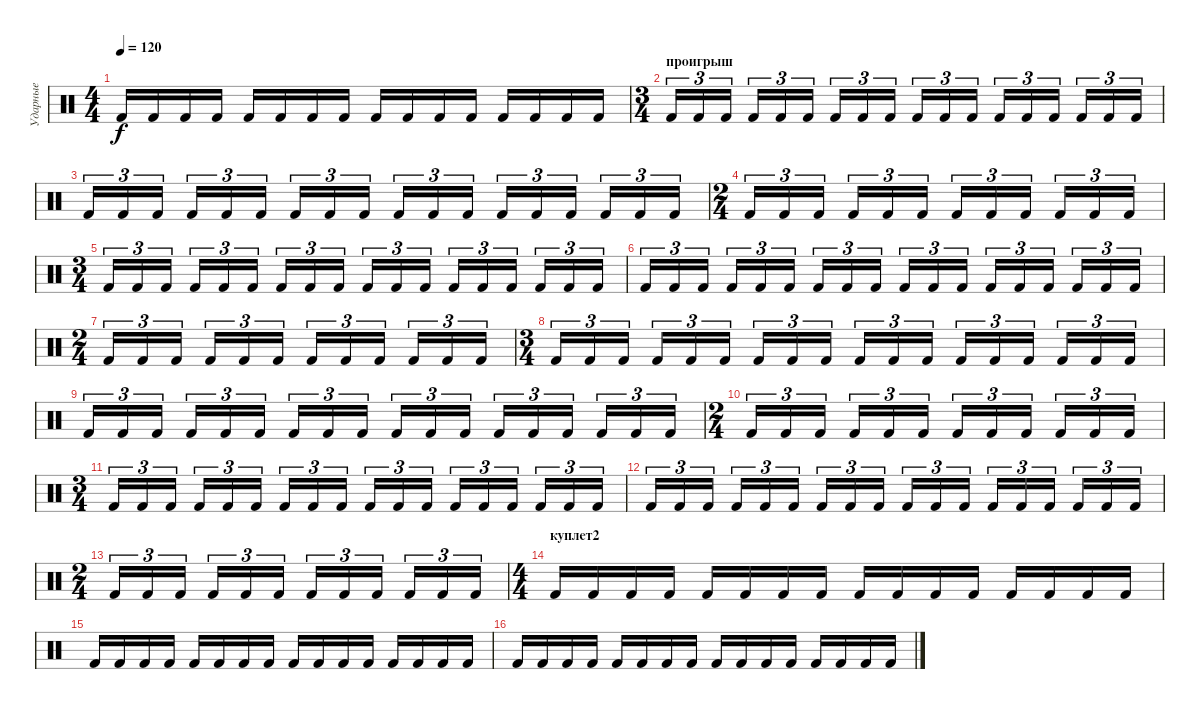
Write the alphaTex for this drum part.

\track ("Ударные" "Ударные") {instrument percussion}
\staff {score}
\articulation defaults
\ts (4 4)
\tempo 120
\clef neutral
\ks c "Kick (hit) 2".16{dy f} "Kick (hit) 2".16 "Kick (hit) 2".16 "Kick (hit) 2".16 "Kick (hit) 2".16 "Kick (hit) 2".16 "Kick (hit) 2".16 "Kick (hit) 2".16 "Kick (hit) 2".16 "Kick (hit) 2".16 "Kick (hit) 2".16 "Kick (hit) 2".16 "Kick (hit) 2".16 "Kick (hit) 2".16 "Kick (hit) 2".16 "Kick (hit) 2".16
|
\ts (3 4)
\section ("" "проигрыш")
"Kick (hit) 2".16{tu (3 2)} "Kick (hit) 2".16{tu (3 2)} "Kick (hit) 2".16{tu (3 2)} "Kick (hit) 2".16{tu (3 2)} "Kick (hit) 2".16{tu (3 2)} "Kick (hit) 2".16{tu (3 2)} "Kick (hit) 2".16{tu (3 2)} "Kick (hit) 2".16{tu (3 2)} "Kick (hit) 2".16{tu (3 2)} "Kick (hit) 2".16{tu (3 2)} "Kick (hit) 2".16{tu (3 2)} "Kick (hit) 2".16{tu (3 2)} "Kick (hit) 2".16{tu (3 2)} "Kick (hit) 2".16{tu (3 2)} "Kick (hit) 2".16{tu (3 2)} "Kick (hit) 2".16{tu (3 2)} "Kick (hit) 2".16{tu (3 2)} "Kick (hit) 2".16{tu (3 2)} |
"Kick (hit) 2".16{tu (3 2)} "Kick (hit) 2".16{tu (3 2)} "Kick (hit) 2".16{tu (3 2)} "Kick (hit) 2".16{tu (3 2)} "Kick (hit) 2".16{tu (3 2)} "Kick (hit) 2".16{tu (3 2)} "Kick (hit) 2".16{tu (3 2)} "Kick (hit) 2".16{tu (3 2)} "Kick (hit) 2".16{tu (3 2)} "Kick (hit) 2".16{tu (3 2)} "Kick (hit) 2".16{tu (3 2)} "Kick (hit) 2".16{tu (3 2)} "Kick (hit) 2".16{tu (3 2)} "Kick (hit) 2".16{tu (3 2)} "Kick (hit) 2".16{tu (3 2)} "Kick (hit) 2".16{tu (3 2)} "Kick (hit) 2".16{tu (3 2)} "Kick (hit) 2".16{tu (3 2)} |
\ts (2 4)
"Kick (hit) 2".16{tu (3 2)} "Kick (hit) 2".16{tu (3 2)} "Kick (hit) 2".16{tu (3 2)} "Kick (hit) 2".16{tu (3 2)} "Kick (hit) 2".16{tu (3 2)} "Kick (hit) 2".16{tu (3 2)} "Kick (hit) 2".16{tu (3 2)} "Kick (hit) 2".16{tu (3 2)} "Kick (hit) 2".16{tu (3 2)} "Kick (hit) 2".16{tu (3 2)} "Kick (hit) 2".16{tu (3 2)} "Kick (hit) 2".16{tu (3 2)} |
\ts (3 4)
"Kick (hit) 2".16{tu (3 2)} "Kick (hit) 2".16{tu (3 2)} "Kick (hit) 2".16{tu (3 2)} "Kick (hit) 2".16{tu (3 2)} "Kick (hit) 2".16{tu (3 2)} "Kick (hit) 2".16{tu (3 2)} "Kick (hit) 2".16{tu (3 2)} "Kick (hit) 2".16{tu (3 2)} "Kick (hit) 2".16{tu (3 2)} "Kick (hit) 2".16{tu (3 2)} "Kick (hit) 2".16{tu (3 2)} "Kick (hit) 2".16{tu (3 2)} "Kick (hit) 2".16{tu (3 2)} "Kick (hit) 2".16{tu (3 2)} "Kick (hit) 2".16{tu (3 2)} "Kick (hit) 2".16{tu (3 2)} "Kick (hit) 2".16{tu (3 2)} "Kick (hit) 2".16{tu (3 2)} |
"Kick (hit) 2".16{tu (3 2)} "Kick (hit) 2".16{tu (3 2)} "Kick (hit) 2".16{tu (3 2)} "Kick (hit) 2".16{tu (3 2)} "Kick (hit) 2".16{tu (3 2)} "Kick (hit) 2".16{tu (3 2)} "Kick (hit) 2".16{tu (3 2)} "Kick (hit) 2".16{tu (3 2)} "Kick (hit) 2".16{tu (3 2)} "Kick (hit) 2".16{tu (3 2)} "Kick (hit) 2".16{tu (3 2)} "Kick (hit) 2".16{tu (3 2)} "Kick (hit) 2".16{tu (3 2)} "Kick (hit) 2".16{tu (3 2)} "Kick (hit) 2".16{tu (3 2)} "Kick (hit) 2".16{tu (3 2)} "Kick (hit) 2".16{tu (3 2)} "Kick (hit) 2".16{tu (3 2)} |
\ts (2 4)
"Kick (hit) 2".16{tu (3 2)} "Kick (hit) 2".16{tu (3 2)} "Kick (hit) 2".16{tu (3 2)} "Kick (hit) 2".16{tu (3 2)} "Kick (hit) 2".16{tu (3 2)} "Kick (hit) 2".16{tu (3 2)} "Kick (hit) 2".16{tu (3 2)} "Kick (hit) 2".16{tu (3 2)} "Kick (hit) 2".16{tu (3 2)} "Kick (hit) 2".16{tu (3 2)} "Kick (hit) 2".16{tu (3 2)} "Kick (hit) 2".16{tu (3 2)} |
\ts (3 4)
"Kick (hit) 2".16{tu (3 2)} "Kick (hit) 2".16{tu (3 2)} "Kick (hit) 2".16{tu (3 2)} "Kick (hit) 2".16{tu (3 2)} "Kick (hit) 2".16{tu (3 2)} "Kick (hit) 2".16{tu (3 2)} "Kick (hit) 2".16{tu (3 2)} "Kick (hit) 2".16{tu (3 2)} "Kick (hit) 2".16{tu (3 2)} "Kick (hit) 2".16{tu (3 2)} "Kick (hit) 2".16{tu (3 2)} "Kick (hit) 2".16{tu (3 2)} "Kick (hit) 2".16{tu (3 2)} "Kick (hit) 2".16{tu (3 2)} "Kick (hit) 2".16{tu (3 2)} "Kick (hit) 2".16{tu (3 2)} "Kick (hit) 2".16{tu (3 2)} "Kick (hit) 2".16{tu (3 2)} |
"Kick (hit) 2".16{tu (3 2)} "Kick (hit) 2".16{tu (3 2)} "Kick (hit) 2".16{tu (3 2)} "Kick (hit) 2".16{tu (3 2)} "Kick (hit) 2".16{tu (3 2)} "Kick (hit) 2".16{tu (3 2)} "Kick (hit) 2".16{tu (3 2)} "Kick (hit) 2".16{tu (3 2)} "Kick (hit) 2".16{tu (3 2)} "Kick (hit) 2".16{tu (3 2)} "Kick (hit) 2".16{tu (3 2)} "Kick (hit) 2".16{tu (3 2)} "Kick (hit) 2".16{tu (3 2)} "Kick (hit) 2".16{tu (3 2)} "Kick (hit) 2".16{tu (3 2)} "Kick (hit) 2".16{tu (3 2)} "Kick (hit) 2".16{tu (3 2)} "Kick (hit) 2".16{tu (3 2)} |
\ts (2 4)
"Kick (hit) 2".16{tu (3 2)} "Kick (hit) 2".16{tu (3 2)} "Kick (hit) 2".16{tu (3 2)} "Kick (hit) 2".16{tu (3 2)} "Kick (hit) 2".16{tu (3 2)} "Kick (hit) 2".16{tu (3 2)} "Kick (hit) 2".16{tu (3 2)} "Kick (hit) 2".16{tu (3 2)} "Kick (hit) 2".16{tu (3 2)} "Kick (hit) 2".16{tu (3 2)} "Kick (hit) 2".16{tu (3 2)} "Kick (hit) 2".16{tu (3 2)} |
\ts (3 4)
"Kick (hit) 2".16{tu (3 2)} "Kick (hit) 2".16{tu (3 2)} "Kick (hit) 2".16{tu (3 2)} "Kick (hit) 2".16{tu (3 2)} "Kick (hit) 2".16{tu (3 2)} "Kick (hit) 2".16{tu (3 2)} "Kick (hit) 2".16{tu (3 2)} "Kick (hit) 2".16{tu (3 2)} "Kick (hit) 2".16{tu (3 2)} "Kick (hit) 2".16{tu (3 2)} "Kick (hit) 2".16{tu (3 2)} "Kick (hit) 2".16{tu (3 2)} "Kick (hit) 2".16{tu (3 2)} "Kick (hit) 2".16{tu (3 2)} "Kick (hit) 2".16{tu (3 2)} "Kick (hit) 2".16{tu (3 2)} "Kick (hit) 2".16{tu (3 2)} "Kick (hit) 2".16{tu (3 2)} |
"Kick (hit) 2".16{tu (3 2)} "Kick (hit) 2".16{tu (3 2)} "Kick (hit) 2".16{tu (3 2)} "Kick (hit) 2".16{tu (3 2)} "Kick (hit) 2".16{tu (3 2)} "Kick (hit) 2".16{tu (3 2)} "Kick (hit) 2".16{tu (3 2)} "Kick (hit) 2".16{tu (3 2)} "Kick (hit) 2".16{tu (3 2)} "Kick (hit) 2".16{tu (3 2)} "Kick (hit) 2".16{tu (3 2)} "Kick (hit) 2".16{tu (3 2)} "Kick (hit) 2".16{tu (3 2)} "Kick (hit) 2".16{tu (3 2)} "Kick (hit) 2".16{tu (3 2)} "Kick (hit) 2".16{tu (3 2)} "Kick (hit) 2".16{tu (3 2)} "Kick (hit) 2".16{tu (3 2)} |
\ts (2 4)
"Kick (hit) 2".16{tu (3 2)} "Kick (hit) 2".16{tu (3 2)} "Kick (hit) 2".16{tu (3 2)} "Kick (hit) 2".16{tu (3 2)} "Kick (hit) 2".16{tu (3 2)} "Kick (hit) 2".16{tu (3 2)} "Kick (hit) 2".16{tu (3 2)} "Kick (hit) 2".16{tu (3 2)} "Kick (hit) 2".16{tu (3 2)} "Kick (hit) 2".16{tu (3 2)} "Kick (hit) 2".16{tu (3 2)} "Kick (hit) 2".16{tu (3 2)} |
\ts (4 4)
\section ("" "куплет2")
"Kick (hit) 2".16 "Kick (hit) 2".16 "Kick (hit) 2".16 "Kick (hit) 2".16 "Kick (hit) 2".16 "Kick (hit) 2".16 "Kick (hit) 2".16 "Kick (hit) 2".16 "Kick (hit) 2".16 "Kick (hit) 2".16 "Kick (hit) 2".16 "Kick (hit) 2".16 "Kick (hit) 2".16 "Kick (hit) 2".16 "Kick (hit) 2".16 "Kick (hit) 2".16 |
"Kick (hit) 2".16 "Kick (hit) 2".16 "Kick (hit) 2".16 "Kick (hit) 2".16 "Kick (hit) 2".16 "Kick (hit) 2".16 "Kick (hit) 2".16 "Kick (hit) 2".16 "Kick (hit) 2".16 "Kick (hit) 2".16 "Kick (hit) 2".16 "Kick (hit) 2".16 "Kick (hit) 2".16 "Kick (hit) 2".16 "Kick (hit) 2".16 "Kick (hit) 2".16 |
"Kick (hit) 2".16 "Kick (hit) 2".16 "Kick (hit) 2".16 "Kick (hit) 2".16 "Kick (hit) 2".16 "Kick (hit) 2".16 "Kick (hit) 2".16 "Kick (hit) 2".16 "Kick (hit) 2".16 "Kick (hit) 2".16 "Kick (hit) 2".16 "Kick (hit) 2".16 "Kick (hit) 2".16 "Kick (hit) 2".16 "Kick (hit) 2".16 "Kick (hit) 2".16
